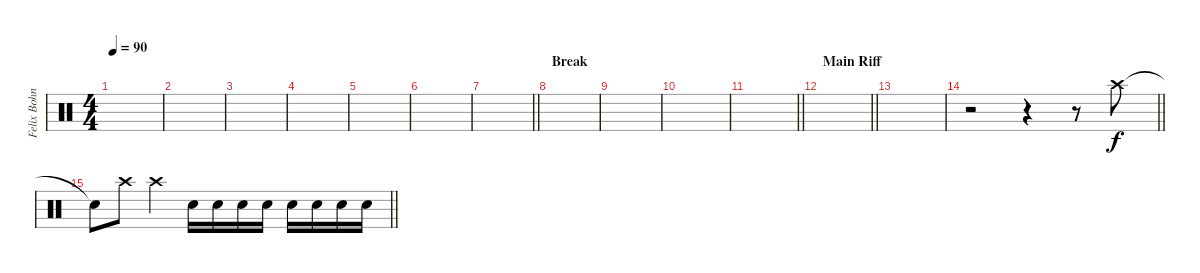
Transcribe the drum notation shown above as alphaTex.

\track ("Felix Bohnke" "Felix Bohn") {instrument percussion}
\staff {score}
\articulation defaults
\ts (4 4)
\tempo 90
\clef neutral
\ks c
|
|
|
|
|
|
\barLineRight lightlight
|
\section ("" "Break")
|
|
|
\barLineRight lightlight
|
\section ("" "Main Riff")
\barLineRight lightlight
|
|
\barLineRight lightlight
r.2 r.4 r.8 "Crash high (hit)".8 |
\barLineRight lightlight "Snare (hit)"{t}.8 "Crash high (hit)".8 "Crash high (hit)".4 "Electric Snare (hit)".16 "Electric Snare (hit)".16 "Electric Snare (hit)".16 "Electric Snare (hit)".16 "Electric Snare (hit)".16 "Electric Snare (hit)".16 "Electric Snare (hit)".16 "Electric Snare (hit)".16
